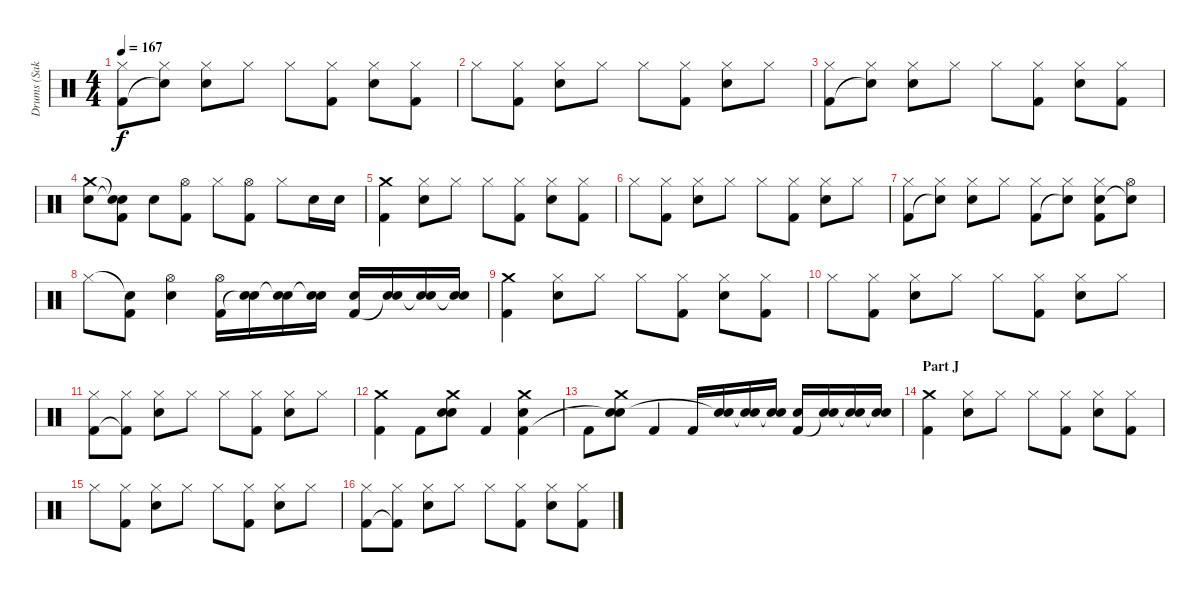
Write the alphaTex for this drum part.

\track ("Drums (Sakura)" "Drums (Sak") {instrument percussion}
\staff {score}
\articulation defaults
\ts (4 4)
\tempo 167
\clef neutral
\ks c
("Hi-Hat (closed)" "Kick (hit) 2").8{dy f} ("Hi-Hat (closed)" "Snare (hit)"{t}).8 ("Hi-Hat (closed)" "Electric Snare (hit)").8 "Hi-Hat (closed)".8 "Hi-Hat (closed)".8 ("Hi-Hat (closed)" "Kick (hit) 2").8 ("Hi-Hat (closed)" "Electric Snare (hit)").8 ("Hi-Hat (closed)" "Kick (hit) 2").8 |
"Hi-Hat (closed)".8 ("Hi-Hat (closed)" "Kick (hit) 2").8 ("Hi-Hat (closed)" "Electric Snare (hit)").8 "Hi-Hat (closed)".8 "Hi-Hat (closed)".8 ("Hi-Hat (closed)" "Kick (hit) 2").8 ("Hi-Hat (closed)" "Electric Snare (hit)").8 "Hi-Hat (closed)".8 |
("Hi-Hat (closed)" "Kick (hit) 2").8 ("Hi-Hat (closed)" "Snare (hit)"{t}).8 ("Hi-Hat (closed)" "Electric Snare (hit)").8 "Hi-Hat (closed)".8 "Hi-Hat (closed)".8 ("Hi-Hat (closed)" "Kick (hit) 2").8 ("Hi-Hat (closed)" "Electric Snare (hit)").8 ("Hi-Hat (closed)" "Kick (hit) 2").8 |
("Crash medium (hit)" "Electric Snare (hit)").8 ("Snare (hit)"{t} "Snare (hit)"{t} "Kick (hit) 2").8 "Electric Snare (hit)".8 ("Hi-Hat (open)" "Kick (hit) 2").8 "Hi-Hat (closed)".8 ("Hi-Hat (open)" "Kick (hit) 2").8 "Hi-Hat (closed)".8 "Electric Snare (hit)".16 "Electric Snare (hit)".16 |
("Crash medium (hit)" "Kick (hit) 2").4 ("Hi-Hat (closed)" "Electric Snare (hit)").8 "Hi-Hat (closed)".8 "Hi-Hat (closed)".8 ("Hi-Hat (closed)" "Kick (hit) 2").8 ("Hi-Hat (closed)" "Electric Snare (hit)").8 ("Hi-Hat (closed)" "Kick (hit) 2").8 |
"Hi-Hat (closed)".8 ("Hi-Hat (closed)" "Kick (hit) 2").8 ("Hi-Hat (closed)" "Electric Snare (hit)").8 "Hi-Hat (closed)".8 "Hi-Hat (closed)".8 ("Hi-Hat (closed)" "Kick (hit) 2").8 ("Hi-Hat (closed)" "Electric Snare (hit)").8 "Hi-Hat (closed)".8 |
("Hi-Hat (closed)" "Kick (hit) 2").8 ("Hi-Hat (closed)" "Snare (hit)"{t}).8 ("Hi-Hat (closed)" "Electric Snare (hit)").8 "Hi-Hat (closed)".8 ("Hi-Hat (closed)" "Kick (hit) 2").8 ("Hi-Hat (closed)" "Snare (hit)"{t}).8 ("Hi-Hat (closed)" "Electric Snare (hit)" "Kick (hit) 2").8 ("Hi-Hat (open)" "Snare (hit)"{t}).8 |
"Hi-Hat (closed)".8 ("Snare (hit)"{t} "Kick (hit) 2").8 ("Hi-Hat (open)" "Electric Snare (hit)").4 ("Hi-Hat (open)" "Kick (hit) 2").16 ("Electric Snare (hit)" "Snare (hit)"{t}).16 ("Electric Snare (hit)" "Snare (hit)"{t}).16 ("Electric Snare (hit)" "Snare (hit)"{t}).16 ("Electric Snare (hit)" "Kick (hit) 2").16 ("Electric Snare (hit)" "Snare (hit)"{t}).16 ("Electric Snare (hit)" "Snare (hit)"{t}).16 ("Electric Snare (hit)" "Snare (hit)"{t}).16 |
("Crash medium (hit)" "Kick (hit) 2").4 ("Hi-Hat (closed)" "Electric Snare (hit)").8 "Hi-Hat (closed)".8 "Hi-Hat (closed)".8 ("Hi-Hat (closed)" "Kick (hit) 2").8 ("Hi-Hat (closed)" "Electric Snare (hit)").8 ("Hi-Hat (closed)" "Kick (hit) 2").8 |
"Hi-Hat (closed)".8 ("Hi-Hat (closed)" "Kick (hit) 2").8 ("Hi-Hat (closed)" "Electric Snare (hit)").8 "Hi-Hat (closed)".8 "Hi-Hat (closed)".8 ("Hi-Hat (closed)" "Kick (hit) 2").8 ("Hi-Hat (closed)" "Electric Snare (hit)").8 "Hi-Hat (closed)".8 |
("Hi-Hat (closed)" "Kick (hit) 2").8 ("Hi-Hat (closed)" "Kick (hit) 2"{t}).8 ("Hi-Hat (closed)" "Electric Snare (hit)").8 "Hi-Hat (closed)".8 "Hi-Hat (closed)".8 ("Hi-Hat (closed)" "Kick (hit) 2").8 ("Hi-Hat (closed)" "Electric Snare (hit)").8 "Hi-Hat (closed)".8 |
("Crash medium (hit)" "Kick (hit) 2").4 "Kick (hit) 2".8 ("Crash medium (hit)" "Electric Snare (hit)" "Snare (hit)").8 "Kick (hit) 2".4 ("Crash medium (hit)" "Electric Snare (hit)" "Kick (hit) 2").4 |
"Kick (hit) 2".8 ("Crash medium (hit)" "Electric Snare (hit)" "Snare (hit)"{t}).8 "Kick (hit) 2".4 "Kick (hit) 2".16 ("Electric Snare (hit)" "Snare (hit)"{t}).16 ("Electric Snare (hit)" "Snare (hit)"{t}).16 ("Electric Snare (hit)" "Snare (hit)"{t}).16 ("Electric Snare (hit)" "Kick (hit) 2").16 ("Electric Snare (hit)" "Snare (hit)"{t}).16 ("Electric Snare (hit)" "Snare (hit)"{t}).16 ("Electric Snare (hit)" "Snare (hit)"{t}).16 |
\section ("" "Part J")
("Crash medium (hit)" "Kick (hit) 2").4 ("Hi-Hat (closed)" "Electric Snare (hit)").8 "Hi-Hat (closed)".8 "Hi-Hat (closed)".8 ("Hi-Hat (closed)" "Kick (hit) 2").8 ("Hi-Hat (closed)" "Electric Snare (hit)").8 ("Hi-Hat (closed)" "Kick (hit) 2").8 |
"Hi-Hat (closed)".8 ("Hi-Hat (closed)" "Kick (hit) 2").8 ("Hi-Hat (closed)" "Electric Snare (hit)").8 "Hi-Hat (closed)".8 "Hi-Hat (closed)".8 ("Hi-Hat (closed)" "Kick (hit) 2").8 ("Hi-Hat (closed)" "Electric Snare (hit)").8 "Hi-Hat (closed)".8 |
("Hi-Hat (closed)" "Kick (hit) 2").8 ("Hi-Hat (closed)" "Kick (hit) 2"{t}).8 ("Hi-Hat (closed)" "Electric Snare (hit)").8 "Hi-Hat (closed)".8 "Hi-Hat (closed)".8 ("Hi-Hat (closed)" "Kick (hit) 2").8 ("Hi-Hat (closed)" "Electric Snare (hit)").8 ("Hi-Hat (closed)" "Kick (hit) 2").8
